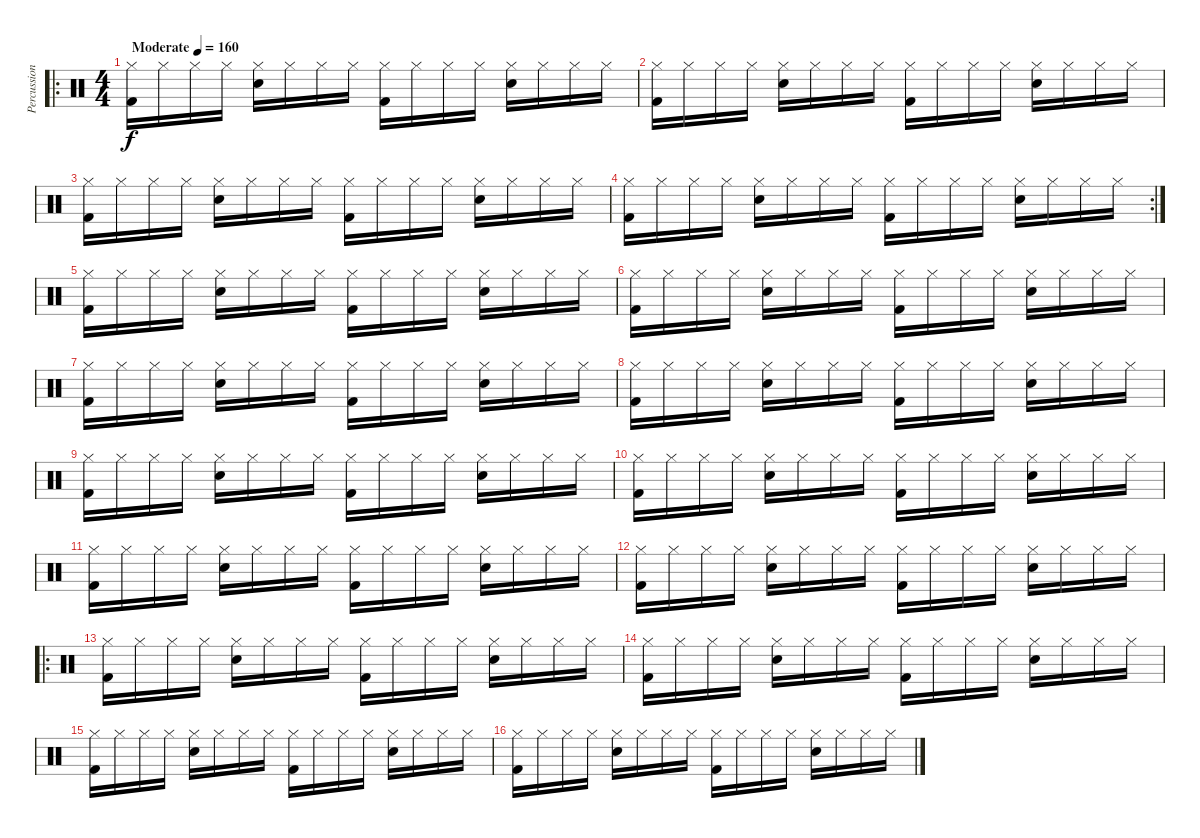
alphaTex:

\track ("Percussion" "Percussion") {instrument percussion}
\staff {score}
\articulation defaults
\ro
\ts (4 4)
\tempo (160 "Moderate")
\clef neutral
\ks c
("Hi-Hat (closed)" "Kick (hit) 2").16{dy f} "Hi-Hat (closed)".16 "Hi-Hat (closed)".16 "Hi-Hat (closed)".16 ("Hi-Hat (closed)" "Snare (hit) 2").16 "Hi-Hat (closed)".16 "Hi-Hat (closed)".16 "Hi-Hat (closed)".16 ("Hi-Hat (closed)" "Kick (hit) 2").16 "Hi-Hat (closed)".16 "Hi-Hat (closed)".16 "Hi-Hat (closed)".16 ("Hi-Hat (closed)" "Snare (hit) 2").16 "Hi-Hat (closed)".16 "Hi-Hat (closed)".16 "Hi-Hat (closed)".16 |
("Hi-Hat (closed)" "Kick (hit) 2").16 "Hi-Hat (closed)".16 "Hi-Hat (closed)".16 "Hi-Hat (closed)".16 ("Hi-Hat (closed)" "Snare (hit) 2").16 "Hi-Hat (closed)".16 "Hi-Hat (closed)".16 "Hi-Hat (closed)".16 ("Hi-Hat (closed)" "Kick (hit) 2").16 "Hi-Hat (closed)".16 "Hi-Hat (closed)".16 "Hi-Hat (closed)".16 ("Hi-Hat (closed)" "Snare (hit) 2").16 "Hi-Hat (closed)".16 "Hi-Hat (closed)".16 "Hi-Hat (closed)".16 |
("Hi-Hat (closed)" "Kick (hit) 2").16 "Hi-Hat (closed)".16 "Hi-Hat (closed)".16 "Hi-Hat (closed)".16 ("Hi-Hat (closed)" "Snare (hit) 2").16 "Hi-Hat (closed)".16 "Hi-Hat (closed)".16 "Hi-Hat (closed)".16 ("Hi-Hat (closed)" "Kick (hit) 2").16 "Hi-Hat (closed)".16 "Hi-Hat (closed)".16 "Hi-Hat (closed)".16 ("Hi-Hat (closed)" "Snare (hit) 2").16 "Hi-Hat (closed)".16 "Hi-Hat (closed)".16 "Hi-Hat (closed)".16 |
\rc 2
("Hi-Hat (closed)" "Kick (hit) 2").16 "Hi-Hat (closed)".16 "Hi-Hat (closed)".16 "Hi-Hat (closed)".16 ("Hi-Hat (closed)" "Snare (hit) 2").16 "Hi-Hat (closed)".16 "Hi-Hat (closed)".16 "Hi-Hat (closed)".16 ("Hi-Hat (closed)" "Kick (hit) 2").16 "Hi-Hat (closed)".16 "Hi-Hat (closed)".16 "Hi-Hat (closed)".16 ("Hi-Hat (closed)" "Snare (hit) 2").16 "Hi-Hat (closed)".16 "Hi-Hat (closed)".16 "Hi-Hat (closed)".16 |
("Hi-Hat (closed)" "Kick (hit) 2").16 "Hi-Hat (closed)".16 "Hi-Hat (closed)".16 "Hi-Hat (closed)".16 ("Hi-Hat (closed)" "Snare (hit) 2").16 "Hi-Hat (closed)".16 "Hi-Hat (closed)".16 "Hi-Hat (closed)".16 ("Hi-Hat (closed)" "Kick (hit) 2").16 "Hi-Hat (closed)".16 "Hi-Hat (closed)".16 "Hi-Hat (closed)".16 ("Hi-Hat (closed)" "Snare (hit) 2").16 "Hi-Hat (closed)".16 "Hi-Hat (closed)".16 "Hi-Hat (closed)".16 |
("Hi-Hat (closed)" "Kick (hit) 2").16 "Hi-Hat (closed)".16 "Hi-Hat (closed)".16 "Hi-Hat (closed)".16 ("Hi-Hat (closed)" "Snare (hit) 2").16 "Hi-Hat (closed)".16 "Hi-Hat (closed)".16 "Hi-Hat (closed)".16 ("Hi-Hat (closed)" "Kick (hit) 2").16 "Hi-Hat (closed)".16 "Hi-Hat (closed)".16 "Hi-Hat (closed)".16 ("Hi-Hat (closed)" "Snare (hit) 2").16 "Hi-Hat (closed)".16 "Hi-Hat (closed)".16 "Hi-Hat (closed)".16 |
("Hi-Hat (closed)" "Kick (hit) 2").16 "Hi-Hat (closed)".16 "Hi-Hat (closed)".16 "Hi-Hat (closed)".16 ("Hi-Hat (closed)" "Snare (hit) 2").16 "Hi-Hat (closed)".16 "Hi-Hat (closed)".16 "Hi-Hat (closed)".16 ("Hi-Hat (closed)" "Kick (hit) 2").16 "Hi-Hat (closed)".16 "Hi-Hat (closed)".16 "Hi-Hat (closed)".16 ("Hi-Hat (closed)" "Snare (hit) 2").16 "Hi-Hat (closed)".16 "Hi-Hat (closed)".16 "Hi-Hat (closed)".16 |
("Hi-Hat (closed)" "Kick (hit) 2").16 "Hi-Hat (closed)".16 "Hi-Hat (closed)".16 "Hi-Hat (closed)".16 ("Hi-Hat (closed)" "Snare (hit) 2").16 "Hi-Hat (closed)".16 "Hi-Hat (closed)".16 "Hi-Hat (closed)".16 ("Hi-Hat (closed)" "Kick (hit) 2").16 "Hi-Hat (closed)".16 "Hi-Hat (closed)".16 "Hi-Hat (closed)".16 ("Hi-Hat (closed)" "Snare (hit) 2").16 "Hi-Hat (closed)".16 "Hi-Hat (closed)".16 "Hi-Hat (closed)".16 |
("Hi-Hat (closed)" "Kick (hit) 2").16 "Hi-Hat (closed)".16 "Hi-Hat (closed)".16 "Hi-Hat (closed)".16 ("Hi-Hat (closed)" "Snare (hit) 2").16 "Hi-Hat (closed)".16 "Hi-Hat (closed)".16 "Hi-Hat (closed)".16 ("Hi-Hat (closed)" "Kick (hit) 2").16 "Hi-Hat (closed)".16 "Hi-Hat (closed)".16 "Hi-Hat (closed)".16 ("Hi-Hat (closed)" "Snare (hit) 2").16 "Hi-Hat (closed)".16 "Hi-Hat (closed)".16 "Hi-Hat (closed)".16 |
("Hi-Hat (closed)" "Kick (hit) 2").16 "Hi-Hat (closed)".16 "Hi-Hat (closed)".16 "Hi-Hat (closed)".16 ("Hi-Hat (closed)" "Snare (hit) 2").16 "Hi-Hat (closed)".16 "Hi-Hat (closed)".16 "Hi-Hat (closed)".16 ("Hi-Hat (closed)" "Kick (hit) 2").16 "Hi-Hat (closed)".16 "Hi-Hat (closed)".16 "Hi-Hat (closed)".16 ("Hi-Hat (closed)" "Snare (hit) 2").16 "Hi-Hat (closed)".16 "Hi-Hat (closed)".16 "Hi-Hat (closed)".16 |
("Hi-Hat (closed)" "Kick (hit) 2").16 "Hi-Hat (closed)".16 "Hi-Hat (closed)".16 "Hi-Hat (closed)".16 ("Hi-Hat (closed)" "Snare (hit) 2").16 "Hi-Hat (closed)".16 "Hi-Hat (closed)".16 "Hi-Hat (closed)".16 ("Hi-Hat (closed)" "Kick (hit) 2").16 "Hi-Hat (closed)".16 "Hi-Hat (closed)".16 "Hi-Hat (closed)".16 ("Hi-Hat (closed)" "Snare (hit) 2").16 "Hi-Hat (closed)".16 "Hi-Hat (closed)".16 "Hi-Hat (closed)".16 |
("Hi-Hat (closed)" "Kick (hit) 2").16 "Hi-Hat (closed)".16 "Hi-Hat (closed)".16 "Hi-Hat (closed)".16 ("Hi-Hat (closed)" "Snare (hit) 2").16 "Hi-Hat (closed)".16 "Hi-Hat (closed)".16 "Hi-Hat (closed)".16 ("Hi-Hat (closed)" "Kick (hit) 2").16 "Hi-Hat (closed)".16 "Hi-Hat (closed)".16 "Hi-Hat (closed)".16 ("Hi-Hat (closed)" "Snare (hit) 2").16 "Hi-Hat (closed)".16 "Hi-Hat (closed)".16 "Hi-Hat (closed)".16 |
\ro
("Hi-Hat (closed)" "Kick (hit) 2").16 "Hi-Hat (closed)".16 "Hi-Hat (closed)".16 "Hi-Hat (closed)".16 ("Hi-Hat (closed)" "Snare (hit) 2").16 "Hi-Hat (closed)".16 "Hi-Hat (closed)".16 "Hi-Hat (closed)".16 ("Hi-Hat (closed)" "Kick (hit) 2").16 "Hi-Hat (closed)".16 "Hi-Hat (closed)".16 "Hi-Hat (closed)".16 ("Hi-Hat (closed)" "Snare (hit) 2").16 "Hi-Hat (closed)".16 "Hi-Hat (closed)".16 "Hi-Hat (closed)".16 |
("Hi-Hat (closed)" "Kick (hit) 2").16 "Hi-Hat (closed)".16 "Hi-Hat (closed)".16 "Hi-Hat (closed)".16 ("Hi-Hat (closed)" "Snare (hit) 2").16 "Hi-Hat (closed)".16 "Hi-Hat (closed)".16 "Hi-Hat (closed)".16 ("Hi-Hat (closed)" "Kick (hit) 2").16 "Hi-Hat (closed)".16 "Hi-Hat (closed)".16 "Hi-Hat (closed)".16 ("Hi-Hat (closed)" "Snare (hit) 2").16 "Hi-Hat (closed)".16 "Hi-Hat (closed)".16 "Hi-Hat (closed)".16 |
("Hi-Hat (closed)" "Kick (hit) 2").16 "Hi-Hat (closed)".16 "Hi-Hat (closed)".16 "Hi-Hat (closed)".16 ("Hi-Hat (closed)" "Snare (hit) 2").16 "Hi-Hat (closed)".16 "Hi-Hat (closed)".16 "Hi-Hat (closed)".16 ("Hi-Hat (closed)" "Kick (hit) 2").16 "Hi-Hat (closed)".16 "Hi-Hat (closed)".16 "Hi-Hat (closed)".16 ("Hi-Hat (closed)" "Snare (hit) 2").16 "Hi-Hat (closed)".16 "Hi-Hat (closed)".16 "Hi-Hat (closed)".16 |
("Hi-Hat (closed)" "Kick (hit) 2").16 "Hi-Hat (closed)".16 "Hi-Hat (closed)".16 "Hi-Hat (closed)".16 ("Hi-Hat (closed)" "Snare (hit) 2").16 "Hi-Hat (closed)".16 "Hi-Hat (closed)".16 "Hi-Hat (closed)".16 ("Hi-Hat (closed)" "Kick (hit) 2").16 "Hi-Hat (closed)".16 "Hi-Hat (closed)".16 "Hi-Hat (closed)".16 ("Hi-Hat (closed)" "Snare (hit) 2").16 "Hi-Hat (closed)".16 "Hi-Hat (closed)".16 "Hi-Hat (closed)".16
